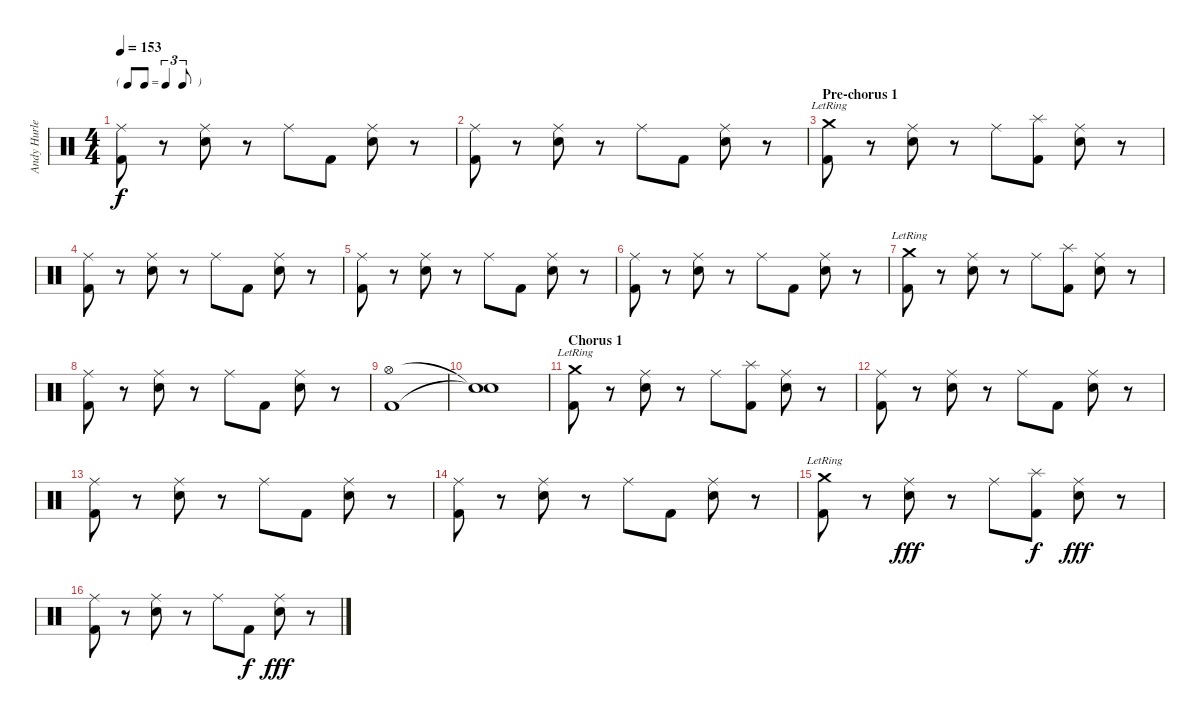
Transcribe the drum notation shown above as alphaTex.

\track ("Andy Hurley" "Andy Hurle") {instrument percussion}
\staff {score}
\articulation defaults
\ts (4 4)
\tf triplet8th
\tempo 153
\clef neutral
\ks c
("Ride (middle)" "Kick (hit) 2").8{dy f} r.8 ("Ride (middle)" "Electric Snare (hit)").8 r.8 "Ride (middle)".8 "Kick (hit) 2".8 ("Ride (middle)" "Electric Snare (hit)").8 r.8 |
("Ride (middle)" "Kick (hit) 2").8 r.8 ("Ride (middle)" "Electric Snare (hit)").8 r.8 "Ride (middle)".8 "Kick (hit) 2".8 ("Ride (middle)" "Electric Snare (hit)").8 r.8 |
\section ("" "Pre-chorus 1")
("Crash medium (hit)"{lr} "Kick (hit) 2").8 r.8 ("Ride (middle)" "Electric Snare (hit)").8 r.8 "Ride (middle)".8 ("Splash (hit)" "Kick (hit) 2").8 ("Ride (middle)" "Electric Snare (hit)").8 r.8 |
("Ride (middle)" "Kick (hit) 2").8 r.8 ("Ride (middle)" "Electric Snare (hit)").8 r.8 "Ride (middle)".8 "Kick (hit) 2".8 ("Ride (middle)" "Electric Snare (hit)").8 r.8 |
("Ride (middle)" "Kick (hit) 2").8 r.8 ("Ride (middle)" "Electric Snare (hit)").8 r.8 "Ride (middle)".8 "Kick (hit) 2".8 ("Ride (middle)" "Electric Snare (hit)").8 r.8 |
("Ride (middle)" "Kick (hit) 2").8 r.8 ("Ride (middle)" "Electric Snare (hit)").8 r.8 "Ride (middle)".8 "Kick (hit) 2".8 ("Ride (middle)" "Electric Snare (hit)").8 r.8 |
("Crash medium (hit)"{lr} "Kick (hit) 2").8 r.8 ("Ride (middle)" "Electric Snare (hit)").8 r.8 "Ride (middle)".8 ("Splash (hit)" "Kick (hit) 2").8 ("Ride (middle)" "Electric Snare (hit)").8 r.8 |
("Ride (middle)" "Kick (hit) 2").8 r.8 ("Ride (middle)" "Electric Snare (hit)").8 r.8 "Ride (middle)".8 "Kick (hit) 2".8 ("Ride (middle)" "Electric Snare (hit)").8 r.8 |
("Hi-Hat (open)" "Kick (hit) 2").1 |
("Snare (hit)"{t} "Snare (hit)"{t}).1 |
\section ("" "Chorus 1")
("Crash medium (hit)"{lr} "Kick (hit) 2").8 r.8 ("Ride (middle)" "Electric Snare (hit)").8 r.8 "Ride (middle)".8 ("Splash (hit)" "Kick (hit) 2").8 ("Ride (middle)" "Electric Snare (hit)").8 r.8 |
("Ride (middle)" "Kick (hit) 2").8 r.8 ("Ride (middle)" "Electric Snare (hit)").8 r.8 "Ride (middle)".8 "Kick (hit) 2".8 ("Ride (middle)" "Electric Snare (hit)").8 r.8 |
("Ride (middle)" "Kick (hit) 2").8 r.8 ("Ride (middle)" "Electric Snare (hit)").8 r.8 "Ride (middle)".8 "Kick (hit) 2".8 ("Ride (middle)" "Electric Snare (hit)").8 r.8 |
("Ride (middle)" "Kick (hit) 2").8 r.8 ("Ride (middle)" "Electric Snare (hit)").8 r.8 "Ride (middle)".8 "Kick (hit) 2".8 ("Ride (middle)" "Electric Snare (hit)").8 r.8 |
("Crash medium (hit)"{lr} "Kick (hit) 2").8 r.8 ("Ride (middle)" "Electric Snare (hit)").8{dy fff} r.8 "Ride (middle)".8 ("Splash (hit)" "Kick (hit) 2").8{dy f} ("Ride (middle)" "Electric Snare (hit)").8{dy fff} r.8 |
("Ride (middle)" "Kick (hit) 2").8 r.8 ("Ride (middle)" "Electric Snare (hit)").8 r.8 "Ride (middle)".8 "Kick (hit) 2".8{dy f} ("Ride (middle)" "Electric Snare (hit)").8{dy fff} r.8
